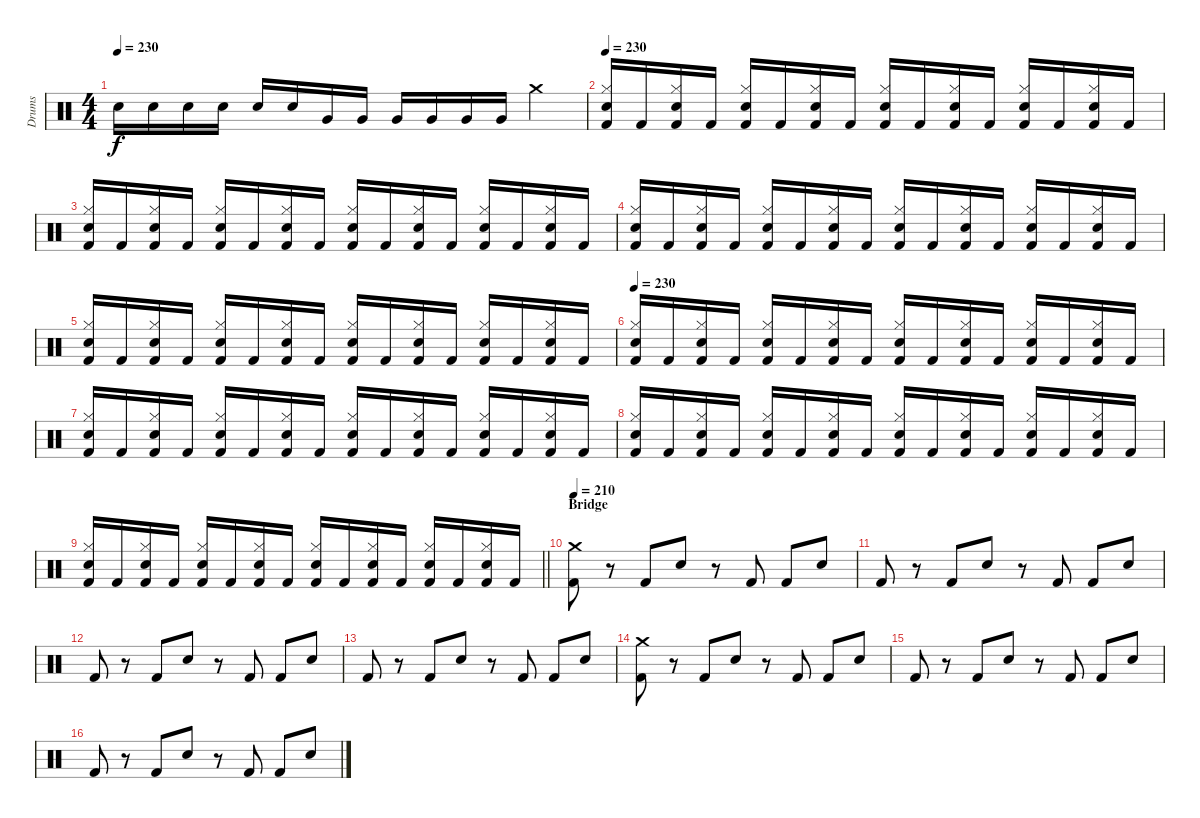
\track ("Drums" "Drums") {instrument percussion}
\staff {score}
\articulation defaults
\ts (4 4)
\tempo 230
\clef neutral
\ks c "Snare (hit) 2".16{dy f} "Snare (hit) 2".16 "Snare (hit) 2".16 "Snare (hit) 2".16 "Snare (hit) 2".16 "Snare (hit) 2".16 "Very Low Tom (hit)".16 "Very Low Tom (hit)".16 "Very Low Tom (hit)".16 "Very Low Tom (hit)".16 "Very Low Tom (hit)".16 "Very Low Tom (hit)".16 "Crash medium (hit)".4
|
\tempo 230
("Hi-Hat (closed)" "Snare (hit) 2" "Kick (hit) 2").16 "Kick (hit) 2".16 ("Hi-Hat (closed)" "Snare (hit) 2" "Kick (hit) 2").16 "Kick (hit) 2".16 ("Hi-Hat (closed)" "Snare (hit) 2" "Kick (hit) 2").16 "Kick (hit) 2".16 ("Hi-Hat (closed)" "Snare (hit) 2" "Kick (hit) 2").16 "Kick (hit) 2".16 ("Hi-Hat (closed)" "Snare (hit) 2" "Kick (hit) 2").16 "Kick (hit) 2".16 ("Hi-Hat (closed)" "Snare (hit) 2" "Kick (hit) 2").16 "Kick (hit) 2".16 ("Hi-Hat (closed)" "Snare (hit) 2" "Kick (hit) 2").16 "Kick (hit) 2".16 ("Hi-Hat (closed)" "Snare (hit) 2" "Kick (hit) 2").16 "Kick (hit) 2".16 |
("Hi-Hat (closed)" "Snare (hit) 2" "Kick (hit) 2").16 "Kick (hit) 2".16 ("Hi-Hat (closed)" "Snare (hit) 2" "Kick (hit) 2").16 "Kick (hit) 2".16 ("Hi-Hat (closed)" "Snare (hit) 2" "Kick (hit) 2").16 "Kick (hit) 2".16 ("Hi-Hat (closed)" "Snare (hit) 2" "Kick (hit) 2").16 "Kick (hit) 2".16 ("Hi-Hat (closed)" "Snare (hit) 2" "Kick (hit) 2").16 "Kick (hit) 2".16 ("Hi-Hat (closed)" "Snare (hit) 2" "Kick (hit) 2").16 "Kick (hit) 2".16 ("Hi-Hat (closed)" "Snare (hit) 2" "Kick (hit) 2").16 "Kick (hit) 2".16 ("Hi-Hat (closed)" "Snare (hit) 2" "Kick (hit) 2").16 "Kick (hit) 2".16 |
("Hi-Hat (closed)" "Snare (hit) 2" "Kick (hit) 2").16 "Kick (hit) 2".16 ("Hi-Hat (closed)" "Snare (hit) 2" "Kick (hit) 2").16 "Kick (hit) 2".16 ("Hi-Hat (closed)" "Snare (hit) 2" "Kick (hit) 2").16 "Kick (hit) 2".16 ("Hi-Hat (closed)" "Snare (hit) 2" "Kick (hit) 2").16 "Kick (hit) 2".16 ("Hi-Hat (closed)" "Snare (hit) 2" "Kick (hit) 2").16 "Kick (hit) 2".16 ("Hi-Hat (closed)" "Snare (hit) 2" "Kick (hit) 2").16 "Kick (hit) 2".16 ("Hi-Hat (closed)" "Snare (hit) 2" "Kick (hit) 2").16 "Kick (hit) 2".16 ("Hi-Hat (closed)" "Snare (hit) 2" "Kick (hit) 2").16 "Kick (hit) 2".16 |
("Hi-Hat (closed)" "Snare (hit) 2" "Kick (hit) 2").16 "Kick (hit) 2".16 ("Hi-Hat (closed)" "Snare (hit) 2" "Kick (hit) 2").16 "Kick (hit) 2".16 ("Hi-Hat (closed)" "Snare (hit) 2" "Kick (hit) 2").16 "Kick (hit) 2".16 ("Hi-Hat (closed)" "Snare (hit) 2" "Kick (hit) 2").16 "Kick (hit) 2".16 ("Hi-Hat (closed)" "Snare (hit) 2" "Kick (hit) 2").16 "Kick (hit) 2".16 ("Hi-Hat (closed)" "Snare (hit) 2" "Kick (hit) 2").16 "Kick (hit) 2".16 ("Hi-Hat (closed)" "Snare (hit) 2" "Kick (hit) 2").16 "Kick (hit) 2".16 ("Hi-Hat (closed)" "Snare (hit) 2" "Kick (hit) 2").16 "Kick (hit) 2".16 |
\tempo 230
("Hi-Hat (closed)" "Snare (hit) 2" "Kick (hit) 2").16 "Kick (hit) 2".16 ("Hi-Hat (closed)" "Snare (hit) 2" "Kick (hit) 2").16 "Kick (hit) 2".16 ("Hi-Hat (closed)" "Snare (hit) 2" "Kick (hit) 2").16 "Kick (hit) 2".16 ("Hi-Hat (closed)" "Snare (hit) 2" "Kick (hit) 2").16 "Kick (hit) 2".16 ("Hi-Hat (closed)" "Snare (hit) 2" "Kick (hit) 2").16 "Kick (hit) 2".16 ("Hi-Hat (closed)" "Snare (hit) 2" "Kick (hit) 2").16 "Kick (hit) 2".16 ("Hi-Hat (closed)" "Snare (hit) 2" "Kick (hit) 2").16 "Kick (hit) 2".16 ("Hi-Hat (closed)" "Snare (hit) 2" "Kick (hit) 2").16 "Kick (hit) 2".16 |
("Hi-Hat (closed)" "Snare (hit) 2" "Kick (hit) 2").16 "Kick (hit) 2".16 ("Hi-Hat (closed)" "Snare (hit) 2" "Kick (hit) 2").16 "Kick (hit) 2".16 ("Hi-Hat (closed)" "Snare (hit) 2" "Kick (hit) 2").16 "Kick (hit) 2".16 ("Hi-Hat (closed)" "Snare (hit) 2" "Kick (hit) 2").16 "Kick (hit) 2".16 ("Hi-Hat (closed)" "Snare (hit) 2" "Kick (hit) 2").16 "Kick (hit) 2".16 ("Hi-Hat (closed)" "Snare (hit) 2" "Kick (hit) 2").16 "Kick (hit) 2".16 ("Hi-Hat (closed)" "Snare (hit) 2" "Kick (hit) 2").16 "Kick (hit) 2".16 ("Hi-Hat (closed)" "Snare (hit) 2" "Kick (hit) 2").16 "Kick (hit) 2".16 |
("Hi-Hat (closed)" "Snare (hit) 2" "Kick (hit) 2").16 "Kick (hit) 2".16 ("Hi-Hat (closed)" "Snare (hit) 2" "Kick (hit) 2").16 "Kick (hit) 2".16 ("Hi-Hat (closed)" "Snare (hit) 2" "Kick (hit) 2").16 "Kick (hit) 2".16 ("Hi-Hat (closed)" "Snare (hit) 2" "Kick (hit) 2").16 "Kick (hit) 2".16 ("Hi-Hat (closed)" "Snare (hit) 2" "Kick (hit) 2").16 "Kick (hit) 2".16 ("Hi-Hat (closed)" "Snare (hit) 2" "Kick (hit) 2").16 "Kick (hit) 2".16 ("Hi-Hat (closed)" "Snare (hit) 2" "Kick (hit) 2").16 "Kick (hit) 2".16 ("Hi-Hat (closed)" "Snare (hit) 2" "Kick (hit) 2").16 "Kick (hit) 2".16 |
\barLineRight lightlight
("Hi-Hat (closed)" "Snare (hit) 2" "Kick (hit) 2").16 "Kick (hit) 2".16 ("Hi-Hat (closed)" "Snare (hit) 2" "Kick (hit) 2").16 "Kick (hit) 2".16 ("Hi-Hat (closed)" "Snare (hit) 2" "Kick (hit) 2").16 "Kick (hit) 2".16 ("Hi-Hat (closed)" "Snare (hit) 2" "Kick (hit) 2").16 "Kick (hit) 2".16 ("Hi-Hat (closed)" "Snare (hit) 2" "Kick (hit) 2").16 "Kick (hit) 2".16 ("Hi-Hat (closed)" "Snare (hit) 2" "Kick (hit) 2").16 "Kick (hit) 2".16 ("Hi-Hat (closed)" "Snare (hit) 2" "Kick (hit) 2").16 "Kick (hit) 2".16 ("Hi-Hat (closed)" "Snare (hit) 2" "Kick (hit) 2").16 "Kick (hit) 2".16 |
\section ("" "Bridge")
\tempo 210
("Crash medium (hit)" "Kick (hit) 2").8 r.8 "Kick (hit) 2".8 "Snare (hit) 2".8 r.8 "Kick (hit) 2".8 "Kick (hit) 2".8 "Snare (hit) 2".8 |
"Kick (hit) 2".8 r.8 "Kick (hit) 2".8 "Snare (hit) 2".8 r.8 "Kick (hit) 2".8 "Kick (hit) 2".8 "Snare (hit) 2".8 |
"Kick (hit) 2".8 r.8 "Kick (hit) 2".8 "Snare (hit) 2".8 r.8 "Kick (hit) 2".8 "Kick (hit) 2".8 "Snare (hit) 2".8 |
"Kick (hit) 2".8 r.8 "Kick (hit) 2".8 "Snare (hit) 2".8 r.8 "Kick (hit) 2".8 "Kick (hit) 2".8 "Snare (hit) 2".8 |
("Crash medium (hit)" "Kick (hit) 2").8 r.8 "Kick (hit) 2".8 "Snare (hit) 2".8 r.8 "Kick (hit) 2".8 "Kick (hit) 2".8 "Snare (hit) 2".8 |
"Kick (hit) 2".8 r.8 "Kick (hit) 2".8 "Snare (hit) 2".8 r.8 "Kick (hit) 2".8 "Kick (hit) 2".8 "Snare (hit) 2".8 |
"Kick (hit) 2".8 r.8 "Kick (hit) 2".8 "Snare (hit) 2".8 r.8 "Kick (hit) 2".8 "Kick (hit) 2".8 "Snare (hit) 2".8
